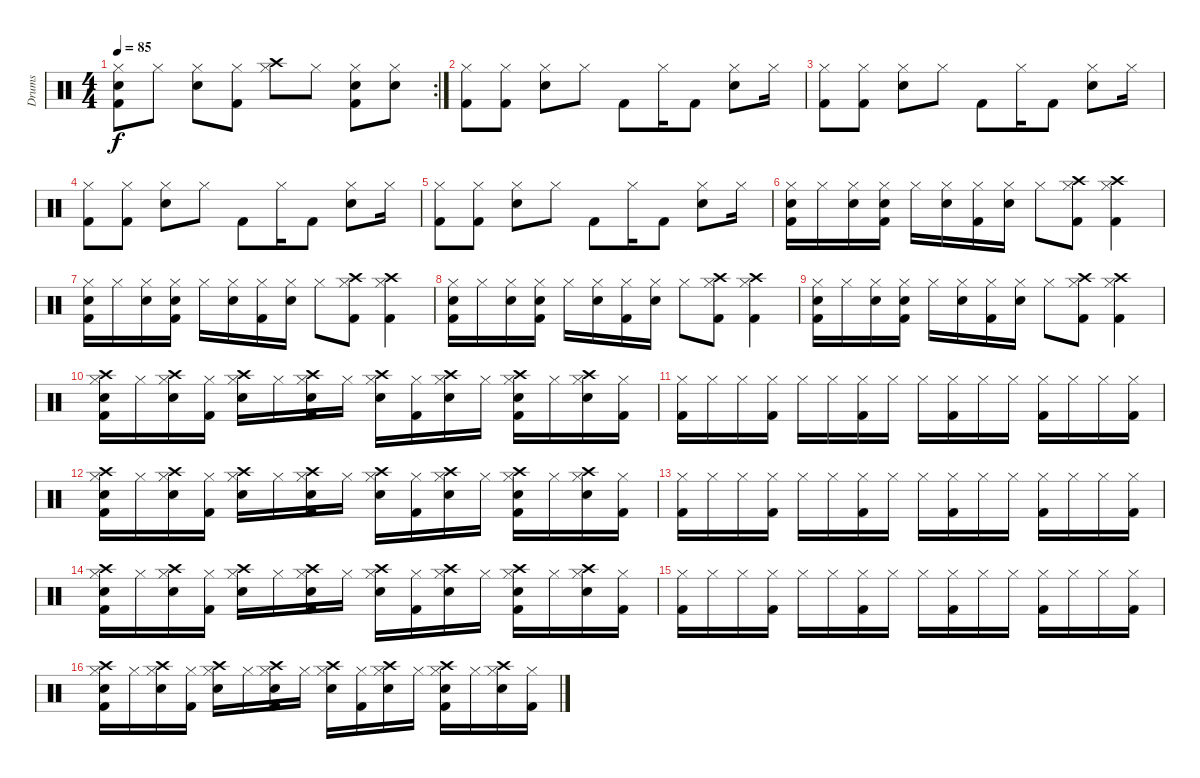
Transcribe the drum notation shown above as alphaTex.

\track ("Drums" "Drums") {instrument percussion}
\staff {score}
\articulation defaults
\rc 2
\ts (4 4)
\tempo 85
\clef neutral
\ks c
("Hi-Hat (closed)" "Electric Snare (hit)" "Kick (hit) 2").8{dy f} "Hi-Hat (closed)".8 ("Hi-Hat (closed)" "Electric Snare (hit)").8 ("Hi-Hat (closed)" "Kick (hit) 2").8 ("Crash high (hit)" "Hi-Hat (closed)").8 "Hi-Hat (closed)".8 ("Hi-Hat (closed)" "Electric Snare (hit)" "Kick (hit) 2").8 ("Hi-Hat (closed)" "Electric Snare (hit)").8 |
("Hi-Hat (closed)" "Kick (hit) 2").8 ("Hi-Hat (closed)" "Kick (hit) 2").8 ("Hi-Hat (closed)" "Snare (hit) 2").8 "Hi-Hat (closed)".8 "Kick (hit) 2".8 "Hi-Hat (closed)".16 "Kick (hit) 2".8 ("Hi-Hat (closed)" "Snare (hit) 2").8 "Hi-Hat (closed)".16 |
("Hi-Hat (closed)" "Kick (hit) 2").8 ("Hi-Hat (closed)" "Kick (hit) 2").8 ("Hi-Hat (closed)" "Snare (hit) 2").8 "Hi-Hat (closed)".8 "Kick (hit) 2".8 "Hi-Hat (closed)".16 "Kick (hit) 2".8 ("Hi-Hat (closed)" "Snare (hit) 2").8 "Hi-Hat (closed)".16 |
("Hi-Hat (closed)" "Kick (hit) 2").8 ("Hi-Hat (closed)" "Kick (hit) 2").8 ("Hi-Hat (closed)" "Snare (hit) 2").8 "Hi-Hat (closed)".8 "Kick (hit) 2".8 "Hi-Hat (closed)".16 "Kick (hit) 2".8 ("Hi-Hat (closed)" "Snare (hit) 2").8 "Hi-Hat (closed)".16 |
("Hi-Hat (closed)" "Kick (hit) 2").8 ("Hi-Hat (closed)" "Kick (hit) 2").8 ("Hi-Hat (closed)" "Snare (hit) 2").8 "Hi-Hat (closed)".8 "Kick (hit) 2".8 "Hi-Hat (closed)".16 "Kick (hit) 2".8 ("Hi-Hat (closed)" "Snare (hit) 2").8 "Hi-Hat (closed)".16 |
("Hi-Hat (closed)" "Electric Snare (hit)" "Kick (hit) 2").16 "Hi-Hat (closed)".16 ("Hi-Hat (closed)" "Electric Snare (hit)").16 ("Hi-Hat (closed)" "Electric Snare (hit)" "Kick (hit) 2").16 "Hi-Hat (closed)".16 ("Hi-Hat (closed)" "Electric Snare (hit)").16 ("Hi-Hat (closed)" "Kick (hit) 2").16 ("Hi-Hat (closed)" "Electric Snare (hit)").16 "Hi-Hat (closed)".8 ("Crash high (hit)" "Hi-Hat (closed)" "Kick (hit) 2").8 ("Crash high (hit)" "Hi-Hat (closed)" "Kick (hit) 2").4 |
("Hi-Hat (closed)" "Electric Snare (hit)" "Kick (hit) 2").16 "Hi-Hat (closed)".16 ("Hi-Hat (closed)" "Electric Snare (hit)").16 ("Hi-Hat (closed)" "Electric Snare (hit)" "Kick (hit) 2").16 "Hi-Hat (closed)".16 ("Hi-Hat (closed)" "Electric Snare (hit)").16 ("Hi-Hat (closed)" "Kick (hit) 2").16 ("Hi-Hat (closed)" "Electric Snare (hit)").16 "Hi-Hat (closed)".8 ("Crash high (hit)" "Hi-Hat (closed)" "Kick (hit) 2").8 ("Crash high (hit)" "Hi-Hat (closed)" "Kick (hit) 2").4 |
("Hi-Hat (closed)" "Electric Snare (hit)" "Kick (hit) 2").16 "Hi-Hat (closed)".16 ("Hi-Hat (closed)" "Electric Snare (hit)").16 ("Hi-Hat (closed)" "Electric Snare (hit)" "Kick (hit) 2").16 "Hi-Hat (closed)".16 ("Hi-Hat (closed)" "Electric Snare (hit)").16 ("Hi-Hat (closed)" "Kick (hit) 2").16 ("Hi-Hat (closed)" "Electric Snare (hit)").16 "Hi-Hat (closed)".8 ("Crash high (hit)" "Hi-Hat (closed)" "Kick (hit) 2").8 ("Crash high (hit)" "Hi-Hat (closed)" "Kick (hit) 2").4 |
("Hi-Hat (closed)" "Electric Snare (hit)" "Kick (hit) 2").16 "Hi-Hat (closed)".16 ("Hi-Hat (closed)" "Electric Snare (hit)").16 ("Hi-Hat (closed)" "Electric Snare (hit)" "Kick (hit) 2").16 "Hi-Hat (closed)".16 ("Hi-Hat (closed)" "Electric Snare (hit)").16 ("Hi-Hat (closed)" "Kick (hit) 2").16 ("Hi-Hat (closed)" "Electric Snare (hit)").16 "Hi-Hat (closed)".8 ("Crash high (hit)" "Hi-Hat (closed)" "Kick (hit) 2").8 ("Crash high (hit)" "Hi-Hat (closed)" "Kick (hit) 2").4 |
("Crash high (hit)" "Hi-Hat (closed)" "Electric Snare (hit)" "Kick (hit) 2").16 "Hi-Hat (closed)".16 ("Crash high (hit)" "Hi-Hat (closed)" "Electric Snare (hit)").16 ("Hi-Hat (closed)" "Kick (hit) 2").16 ("Crash high (hit)" "Hi-Hat (closed)" "Electric Snare (hit)").16 "Hi-Hat (closed)".16 ("Crash high (hit)" "Hi-Hat (closed)" "Electric Snare (hit)" "Kick (hit) 2").16 "Hi-Hat (closed)".16 ("Crash high (hit)" "Hi-Hat (closed)" "Electric Snare (hit)").16 ("Hi-Hat (closed)" "Kick (hit) 2").16 ("Crash high (hit)" "Hi-Hat (closed)" "Electric Snare (hit)").16 "Hi-Hat (closed)".16 ("Crash high (hit)" "Hi-Hat (closed)" "Electric Snare (hit)" "Kick (hit) 2").16 "Hi-Hat (closed)".16 ("Crash high (hit)" "Hi-Hat (closed)" "Electric Snare (hit)").16 ("Hi-Hat (closed)" "Kick (hit) 2").16 |
("Hi-Hat (closed)" "Kick (hit) 2").16 "Hi-Hat (closed)".16 "Hi-Hat (closed)".16 ("Hi-Hat (closed)" "Kick (hit) 2").16 "Hi-Hat (closed)".16 "Hi-Hat (closed)".16 ("Hi-Hat (closed)" "Kick (hit) 2").16 "Hi-Hat (closed)".16 "Hi-Hat (closed)".16 ("Hi-Hat (closed)" "Kick (hit) 2").16 "Hi-Hat (closed)".16 "Hi-Hat (closed)".16 ("Hi-Hat (closed)" "Kick (hit) 2").16 "Hi-Hat (closed)".16 "Hi-Hat (closed)".16 ("Hi-Hat (closed)" "Kick (hit) 2").16 |
("Crash high (hit)" "Hi-Hat (closed)" "Electric Snare (hit)" "Kick (hit) 2").16 "Hi-Hat (closed)".16 ("Crash high (hit)" "Hi-Hat (closed)" "Electric Snare (hit)").16 ("Hi-Hat (closed)" "Kick (hit) 2").16 ("Crash high (hit)" "Hi-Hat (closed)" "Electric Snare (hit)").16 "Hi-Hat (closed)".16 ("Crash high (hit)" "Hi-Hat (closed)" "Electric Snare (hit)" "Kick (hit) 2").16 "Hi-Hat (closed)".16 ("Crash high (hit)" "Hi-Hat (closed)" "Electric Snare (hit)").16 ("Hi-Hat (closed)" "Kick (hit) 2").16 ("Crash high (hit)" "Hi-Hat (closed)" "Electric Snare (hit)").16 "Hi-Hat (closed)".16 ("Crash high (hit)" "Hi-Hat (closed)" "Electric Snare (hit)" "Kick (hit) 2").16 "Hi-Hat (closed)".16 ("Crash high (hit)" "Hi-Hat (closed)" "Electric Snare (hit)").16 ("Hi-Hat (closed)" "Kick (hit) 2").16 |
("Hi-Hat (closed)" "Kick (hit) 2").16 "Hi-Hat (closed)".16 "Hi-Hat (closed)".16 ("Hi-Hat (closed)" "Kick (hit) 2").16 "Hi-Hat (closed)".16 "Hi-Hat (closed)".16 ("Hi-Hat (closed)" "Kick (hit) 2").16 "Hi-Hat (closed)".16 "Hi-Hat (closed)".16 ("Hi-Hat (closed)" "Kick (hit) 2").16 "Hi-Hat (closed)".16 "Hi-Hat (closed)".16 ("Hi-Hat (closed)" "Kick (hit) 2").16 "Hi-Hat (closed)".16 "Hi-Hat (closed)".16 ("Hi-Hat (closed)" "Kick (hit) 2").16 |
("Crash high (hit)" "Hi-Hat (closed)" "Electric Snare (hit)" "Kick (hit) 2").16 "Hi-Hat (closed)".16 ("Crash high (hit)" "Hi-Hat (closed)" "Electric Snare (hit)").16 ("Hi-Hat (closed)" "Kick (hit) 2").16 ("Crash high (hit)" "Hi-Hat (closed)" "Electric Snare (hit)").16 "Hi-Hat (closed)".16 ("Crash high (hit)" "Hi-Hat (closed)" "Electric Snare (hit)" "Kick (hit) 2").16 "Hi-Hat (closed)".16 ("Crash high (hit)" "Hi-Hat (closed)" "Electric Snare (hit)").16 ("Hi-Hat (closed)" "Kick (hit) 2").16 ("Crash high (hit)" "Hi-Hat (closed)" "Electric Snare (hit)").16 "Hi-Hat (closed)".16 ("Crash high (hit)" "Hi-Hat (closed)" "Electric Snare (hit)" "Kick (hit) 2").16 "Hi-Hat (closed)".16 ("Crash high (hit)" "Hi-Hat (closed)" "Electric Snare (hit)").16 ("Hi-Hat (closed)" "Kick (hit) 2").16 |
("Hi-Hat (closed)" "Kick (hit) 2").16 "Hi-Hat (closed)".16 "Hi-Hat (closed)".16 ("Hi-Hat (closed)" "Kick (hit) 2").16 "Hi-Hat (closed)".16 "Hi-Hat (closed)".16 ("Hi-Hat (closed)" "Kick (hit) 2").16 "Hi-Hat (closed)".16 "Hi-Hat (closed)".16 ("Hi-Hat (closed)" "Kick (hit) 2").16 "Hi-Hat (closed)".16 "Hi-Hat (closed)".16 ("Hi-Hat (closed)" "Kick (hit) 2").16 "Hi-Hat (closed)".16 "Hi-Hat (closed)".16 ("Hi-Hat (closed)" "Kick (hit) 2").16 |
("Crash high (hit)" "Hi-Hat (closed)" "Electric Snare (hit)" "Kick (hit) 2").16 "Hi-Hat (closed)".16 ("Crash high (hit)" "Hi-Hat (closed)" "Electric Snare (hit)").16 ("Hi-Hat (closed)" "Kick (hit) 2").16 ("Crash high (hit)" "Hi-Hat (closed)" "Electric Snare (hit)").16 "Hi-Hat (closed)".16 ("Crash high (hit)" "Hi-Hat (closed)" "Electric Snare (hit)" "Kick (hit) 2").16 "Hi-Hat (closed)".16 ("Crash high (hit)" "Hi-Hat (closed)" "Electric Snare (hit)").16 ("Hi-Hat (closed)" "Kick (hit) 2").16 ("Crash high (hit)" "Hi-Hat (closed)" "Electric Snare (hit)").16 "Hi-Hat (closed)".16 ("Crash high (hit)" "Hi-Hat (closed)" "Electric Snare (hit)" "Kick (hit) 2").16 "Hi-Hat (closed)".16 ("Crash high (hit)" "Hi-Hat (closed)" "Electric Snare (hit)").16 ("Hi-Hat (closed)" "Kick (hit) 2").16
